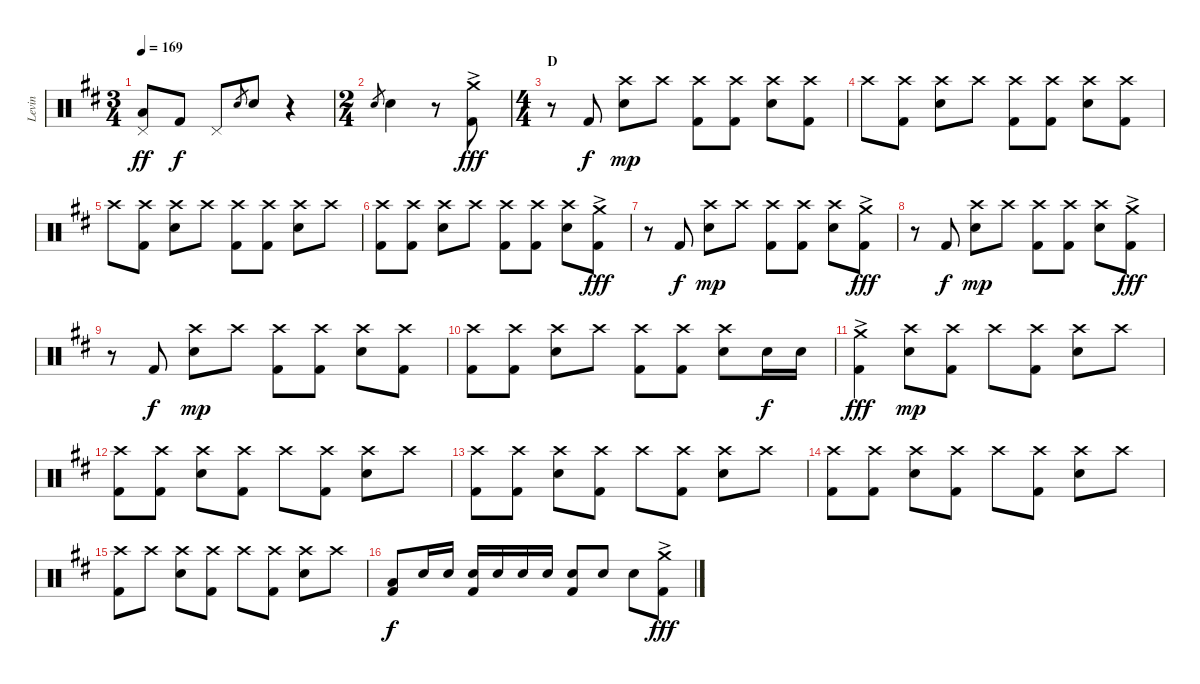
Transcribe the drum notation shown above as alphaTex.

\track ("Levin" "Levin") {instrument percussion}
\staff {score}
\articulation defaults
\ts (3 4)
\tempo 169
\clef neutral
\ks d
("Low Tom (hit)" "Pedal Hi-Hat (hit)").8{dy ff} "Kick (hit) 2".8{dy f} "Pedal Hi-Hat (hit)".8 "Electric Snare (hit)".8{gr} "Electric Snare (hit)".8 r.4 |
\ts (2 4)
"Electric Snare (hit)".8{gr} "Electric Snare (hit)".4 r.8 ("Crash medium (hit)"{ac} "Kick (hit) 2").8{dy fff} |
\ts (4 4)
\section ("" "D")
r.8 "Kick (hit) 2".8{dy f} ("Crash high (hit)" "Electric Snare (hit)").8{dy mp} "Crash high (hit)".8 ("Crash high (hit)" "Kick (hit) 2").8 ("Crash high (hit)" "Kick (hit) 2").8 ("Crash high (hit)" "Electric Snare (hit)").8 ("Crash high (hit)" "Kick (hit) 2").8 |
"Crash high (hit)".8 ("Crash high (hit)" "Kick (hit) 2").8 ("Crash high (hit)" "Electric Snare (hit)").8 "Crash high (hit)".8 ("Crash high (hit)" "Kick (hit) 2").8 ("Crash high (hit)" "Kick (hit) 2").8 ("Crash high (hit)" "Electric Snare (hit)").8 ("Crash high (hit)" "Kick (hit) 2").8 |
"Crash high (hit)".8 ("Crash high (hit)" "Kick (hit) 2").8 ("Crash high (hit)" "Electric Snare (hit)").8 "Crash high (hit)".8 ("Crash high (hit)" "Kick (hit) 2").8 ("Crash high (hit)" "Kick (hit) 2").8 ("Crash high (hit)" "Electric Snare (hit)").8 "Crash high (hit)".8 |
("Crash high (hit)" "Kick (hit) 2").8 ("Crash high (hit)" "Kick (hit) 2").8 ("Crash high (hit)" "Electric Snare (hit)").8 "Crash high (hit)".8 ("Crash high (hit)" "Kick (hit) 2").8 ("Crash high (hit)" "Kick (hit) 2").8 ("Crash high (hit)" "Electric Snare (hit)").8 ("Crash medium (hit)"{ac} "Kick (hit) 2").8{dy fff} |
r.8 "Kick (hit) 2".8{dy f} ("Crash high (hit)" "Electric Snare (hit)").8{dy mp} "Crash high (hit)".8 ("Crash high (hit)" "Kick (hit) 2").8 ("Crash high (hit)" "Kick (hit) 2").8 ("Crash high (hit)" "Electric Snare (hit)").8 ("Crash medium (hit)"{ac} "Kick (hit) 2").8{dy fff} |
r.8 "Kick (hit) 2".8{dy f} ("Crash high (hit)" "Electric Snare (hit)").8{dy mp} "Crash high (hit)".8 ("Crash high (hit)" "Kick (hit) 2").8 ("Crash high (hit)" "Kick (hit) 2").8 ("Crash high (hit)" "Electric Snare (hit)").8 ("Crash medium (hit)"{ac} "Kick (hit) 2").8{dy fff} |
r.8 "Kick (hit) 2".8{dy f} ("Crash high (hit)" "Electric Snare (hit)").8{dy mp} "Crash high (hit)".8 ("Crash high (hit)" "Kick (hit) 2").8 ("Crash high (hit)" "Kick (hit) 2").8 ("Crash high (hit)" "Electric Snare (hit)").8 ("Crash high (hit)" "Kick (hit) 2").8 |
("Crash high (hit)" "Kick (hit) 2").8 ("Crash high (hit)" "Kick (hit) 2").8 ("Crash high (hit)" "Electric Snare (hit)").8 "Crash high (hit)".8 ("Crash high (hit)" "Kick (hit) 2").8 ("Crash high (hit)" "Kick (hit) 2").8 ("Crash high (hit)" "Electric Snare (hit)").8 "Electric Snare (hit)".16{dy f} "Electric Snare (hit)".16 |
("Crash medium (hit)"{ac} "Kick (hit) 2").4{dy fff} ("Crash high (hit)" "Electric Snare (hit)").8{dy mp} ("Crash high (hit)" "Kick (hit) 2").8 "Crash high (hit)".8 ("Crash high (hit)" "Kick (hit) 2").8 ("Crash high (hit)" "Electric Snare (hit)").8 "Crash high (hit)".8 |
("Crash high (hit)" "Kick (hit) 2").8 ("Crash high (hit)" "Kick (hit) 2").8 ("Crash high (hit)" "Electric Snare (hit)").8 ("Crash high (hit)" "Kick (hit) 2").8 "Crash high (hit)".8 ("Crash high (hit)" "Kick (hit) 2").8 ("Crash high (hit)" "Electric Snare (hit)").8 "Crash high (hit)".8 |
("Crash high (hit)" "Kick (hit) 2").8 ("Crash high (hit)" "Kick (hit) 2").8 ("Crash high (hit)" "Electric Snare (hit)").8 ("Crash high (hit)" "Kick (hit) 2").8 "Crash high (hit)".8 ("Crash high (hit)" "Kick (hit) 2").8 ("Crash high (hit)" "Electric Snare (hit)").8 "Crash high (hit)".8 |
("Crash high (hit)" "Kick (hit) 2").8 ("Crash high (hit)" "Kick (hit) 2").8 ("Crash high (hit)" "Electric Snare (hit)").8 ("Crash high (hit)" "Kick (hit) 2").8 "Crash high (hit)".8 ("Crash high (hit)" "Kick (hit) 2").8 ("Crash high (hit)" "Electric Snare (hit)").8 "Crash high (hit)".8 |
("Crash high (hit)" "Kick (hit) 2").8 "Crash high (hit)".8 ("Crash high (hit)" "Electric Snare (hit)").8 ("Crash high (hit)" "Kick (hit) 2").8 "Crash high (hit)".8 ("Crash high (hit)" "Kick (hit) 2").8 ("Crash high (hit)" "Electric Snare (hit)").8 "Crash high (hit)".8 |
("Low Tom (hit)" "Kick (hit) 2").8{dy f} "Electric Snare (hit)".16 "Electric Snare (hit)".16 ("Electric Snare (hit)" "Kick (hit) 2").16 "Electric Snare (hit)".16 "Electric Snare (hit)".16 "Electric Snare (hit)".16 ("Electric Snare (hit)" "Kick (hit) 2").8 "Electric Snare (hit)".8 "Electric Snare (hit)".8 ("Crash medium (hit)"{ac} "Kick (hit) 2").8{dy fff}
